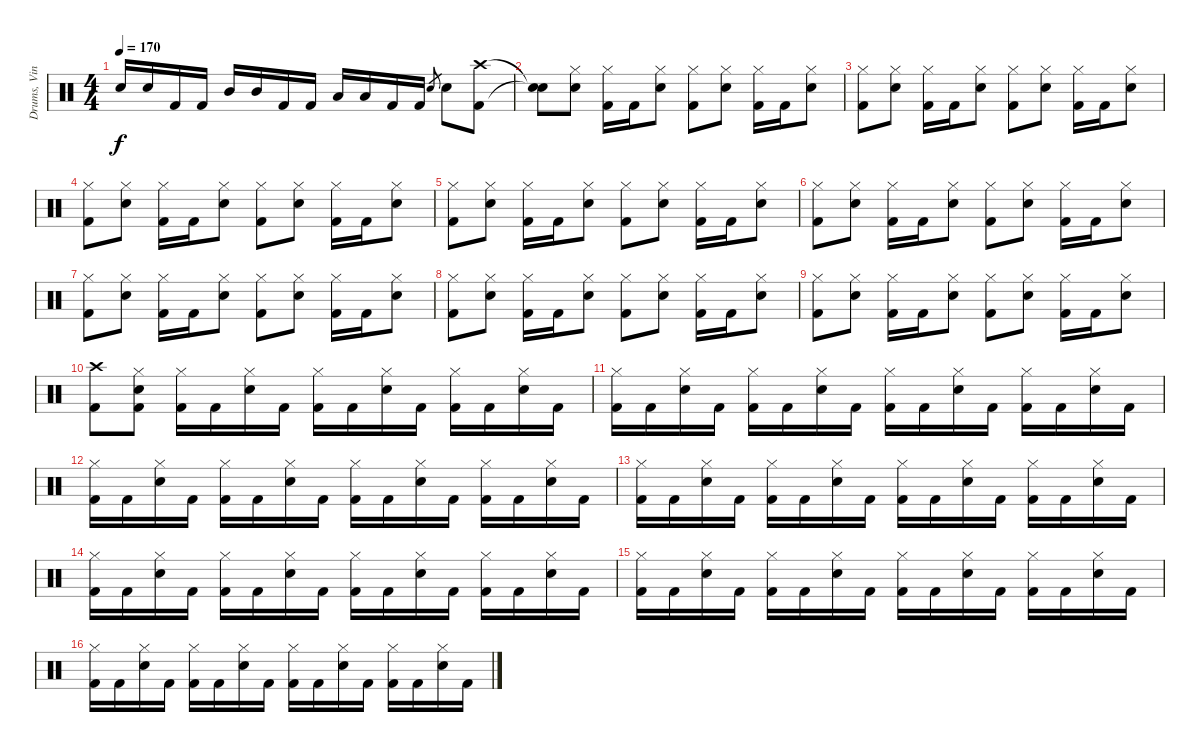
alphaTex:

\track ("Drums, Vinnie" "Drums, Vin") {instrument percussion}
\staff {score}
\articulation defaults
\ts (4 4)
\tempo 170
\clef neutral
\ks c "Electric Snare (hit)".16{dy f} "Electric Snare (hit)".16 "Kick (hit) 2".16 "Kick (hit) 2".16 "Mid Tom (hit)".16 "Mid Tom (hit)".16 "Kick (hit) 2".16 "Kick (hit) 2".16 "Low Tom (hit)".16 "Low Tom (hit)".16 "Kick (hit) 2".16 "Kick (hit) 2".16 "Electric Snare (hit)".8{gr} "Electric Snare (hit)".8
("Crash high (hit)" "Kick (hit) 2").8 |
("Snare (hit)"{t} "Snare (hit)"{t}).8 ("Hi-Hat (closed)" "Electric Snare (hit)").8 ("Hi-Hat (closed)" "Kick (hit) 2").16 "Kick (hit) 2".16 ("Hi-Hat (closed)" "Electric Snare (hit)").8 ("Hi-Hat (closed)" "Kick (hit) 2").8 ("Hi-Hat (closed)" "Electric Snare (hit)").8 ("Hi-Hat (closed)" "Kick (hit) 2").16 "Kick (hit) 2".16 ("Hi-Hat (closed)" "Electric Snare (hit)").8 |
("Hi-Hat (closed)" "Kick (hit) 2").8 ("Hi-Hat (closed)" "Electric Snare (hit)").8 ("Hi-Hat (closed)" "Kick (hit) 2").16 "Kick (hit) 2".16 ("Hi-Hat (closed)" "Electric Snare (hit)").8 ("Hi-Hat (closed)" "Kick (hit) 2").8 ("Hi-Hat (closed)" "Electric Snare (hit)").8 ("Hi-Hat (closed)" "Kick (hit) 2").16 "Kick (hit) 2".16 ("Hi-Hat (closed)" "Electric Snare (hit)").8 |
("Hi-Hat (closed)" "Kick (hit) 2").8 ("Hi-Hat (closed)" "Electric Snare (hit)").8 ("Hi-Hat (closed)" "Kick (hit) 2").16 "Kick (hit) 2".16 ("Hi-Hat (closed)" "Electric Snare (hit)").8 ("Hi-Hat (closed)" "Kick (hit) 2").8 ("Hi-Hat (closed)" "Electric Snare (hit)").8 ("Hi-Hat (closed)" "Kick (hit) 2").16 "Kick (hit) 2".16 ("Hi-Hat (closed)" "Electric Snare (hit)").8 |
("Hi-Hat (closed)" "Kick (hit) 2").8 ("Hi-Hat (closed)" "Electric Snare (hit)").8 ("Hi-Hat (closed)" "Kick (hit) 2").16 "Kick (hit) 2".16 ("Hi-Hat (closed)" "Electric Snare (hit)").8 ("Hi-Hat (closed)" "Kick (hit) 2").8 ("Hi-Hat (closed)" "Electric Snare (hit)").8 ("Hi-Hat (closed)" "Kick (hit) 2").16 "Kick (hit) 2".16 ("Hi-Hat (closed)" "Electric Snare (hit)").8 |
("Hi-Hat (closed)" "Kick (hit) 2").8 ("Hi-Hat (closed)" "Electric Snare (hit)").8 ("Hi-Hat (closed)" "Kick (hit) 2").16 "Kick (hit) 2".16 ("Hi-Hat (closed)" "Electric Snare (hit)").8 ("Hi-Hat (closed)" "Kick (hit) 2").8 ("Hi-Hat (closed)" "Electric Snare (hit)").8 ("Hi-Hat (closed)" "Kick (hit) 2").16 "Kick (hit) 2".16 ("Hi-Hat (closed)" "Electric Snare (hit)").8 |
("Hi-Hat (closed)" "Kick (hit) 2").8 ("Hi-Hat (closed)" "Electric Snare (hit)").8 ("Hi-Hat (closed)" "Kick (hit) 2").16 "Kick (hit) 2".16 ("Hi-Hat (closed)" "Electric Snare (hit)").8 ("Hi-Hat (closed)" "Kick (hit) 2").8 ("Hi-Hat (closed)" "Electric Snare (hit)").8 ("Hi-Hat (closed)" "Kick (hit) 2").16 "Kick (hit) 2".16 ("Hi-Hat (closed)" "Electric Snare (hit)").8 |
("Hi-Hat (closed)" "Kick (hit) 2").8 ("Hi-Hat (closed)" "Electric Snare (hit)").8 ("Hi-Hat (closed)" "Kick (hit) 2").16 "Kick (hit) 2".16 ("Hi-Hat (closed)" "Electric Snare (hit)").8 ("Hi-Hat (closed)" "Kick (hit) 2").8 ("Hi-Hat (closed)" "Electric Snare (hit)").8 ("Hi-Hat (closed)" "Kick (hit) 2").16 "Kick (hit) 2".16 ("Hi-Hat (closed)" "Electric Snare (hit)").8 |
("Hi-Hat (closed)" "Kick (hit) 2").8 ("Hi-Hat (closed)" "Electric Snare (hit)").8 ("Hi-Hat (closed)" "Kick (hit) 2").16 "Kick (hit) 2".16 ("Hi-Hat (closed)" "Electric Snare (hit)").8 ("Hi-Hat (closed)" "Kick (hit) 2").8 ("Hi-Hat (closed)" "Electric Snare (hit)").8 ("Hi-Hat (closed)" "Kick (hit) 2").16 "Kick (hit) 2".16 ("Hi-Hat (closed)" "Electric Snare (hit)").8 |
("Crash high (hit)" "Kick (hit) 2").8 ("Hi-Hat (closed)" "Electric Snare (hit)" "Kick (hit) 2").8 ("Hi-Hat (closed)" "Kick (hit) 2").16 "Kick (hit) 2".16 ("Hi-Hat (closed)" "Electric Snare (hit)").16 "Kick (hit) 2".16 ("Hi-Hat (closed)" "Kick (hit) 2").16 "Kick (hit) 2".16 ("Hi-Hat (closed)" "Electric Snare (hit)").16 "Kick (hit) 2".16 ("Hi-Hat (closed)" "Kick (hit) 2").16 "Kick (hit) 2".16 ("Hi-Hat (closed)" "Electric Snare (hit)").16 "Kick (hit) 2".16 |
("Hi-Hat (closed)" "Kick (hit) 2").16 "Kick (hit) 2".16 ("Hi-Hat (closed)" "Electric Snare (hit)").16 "Kick (hit) 2".16 ("Hi-Hat (closed)" "Kick (hit) 2").16 "Kick (hit) 2".16 ("Hi-Hat (closed)" "Electric Snare (hit)").16 "Kick (hit) 2".16 ("Hi-Hat (closed)" "Kick (hit) 2").16 "Kick (hit) 2".16 ("Hi-Hat (closed)" "Electric Snare (hit)").16 "Kick (hit) 2".16 ("Hi-Hat (closed)" "Kick (hit) 2").16 "Kick (hit) 2".16 ("Hi-Hat (closed)" "Electric Snare (hit)").16 "Kick (hit) 2".16 |
("Hi-Hat (closed)" "Kick (hit) 2").16 "Kick (hit) 2".16 ("Hi-Hat (closed)" "Electric Snare (hit)").16 "Kick (hit) 2".16 ("Hi-Hat (closed)" "Kick (hit) 2").16 "Kick (hit) 2".16 ("Hi-Hat (closed)" "Electric Snare (hit)").16 "Kick (hit) 2".16 ("Hi-Hat (closed)" "Kick (hit) 2").16 "Kick (hit) 2".16 ("Hi-Hat (closed)" "Electric Snare (hit)").16 "Kick (hit) 2".16 ("Hi-Hat (closed)" "Kick (hit) 2").16 "Kick (hit) 2".16 ("Hi-Hat (closed)" "Electric Snare (hit)").16 "Kick (hit) 2".16 |
("Hi-Hat (closed)" "Kick (hit) 2").16 "Kick (hit) 2".16 ("Hi-Hat (closed)" "Electric Snare (hit)").16 "Kick (hit) 2".16 ("Hi-Hat (closed)" "Kick (hit) 2").16 "Kick (hit) 2".16 ("Hi-Hat (closed)" "Electric Snare (hit)").16 "Kick (hit) 2".16 ("Hi-Hat (closed)" "Kick (hit) 2").16 "Kick (hit) 2".16 ("Hi-Hat (closed)" "Electric Snare (hit)").16 "Kick (hit) 2".16 ("Hi-Hat (closed)" "Kick (hit) 2").16 "Kick (hit) 2".16 ("Hi-Hat (closed)" "Electric Snare (hit)").16 "Kick (hit) 2".16 |
("Hi-Hat (closed)" "Kick (hit) 2").16 "Kick (hit) 2".16 ("Hi-Hat (closed)" "Electric Snare (hit)").16 "Kick (hit) 2".16 ("Hi-Hat (closed)" "Kick (hit) 2").16 "Kick (hit) 2".16 ("Hi-Hat (closed)" "Electric Snare (hit)").16 "Kick (hit) 2".16 ("Hi-Hat (closed)" "Kick (hit) 2").16 "Kick (hit) 2".16 ("Hi-Hat (closed)" "Electric Snare (hit)").16 "Kick (hit) 2".16 ("Hi-Hat (closed)" "Kick (hit) 2").16 "Kick (hit) 2".16 ("Hi-Hat (closed)" "Electric Snare (hit)").16 "Kick (hit) 2".16 |
("Hi-Hat (closed)" "Kick (hit) 2").16 "Kick (hit) 2".16 ("Hi-Hat (closed)" "Electric Snare (hit)").16 "Kick (hit) 2".16 ("Hi-Hat (closed)" "Kick (hit) 2").16 "Kick (hit) 2".16 ("Hi-Hat (closed)" "Electric Snare (hit)").16 "Kick (hit) 2".16 ("Hi-Hat (closed)" "Kick (hit) 2").16 "Kick (hit) 2".16 ("Hi-Hat (closed)" "Electric Snare (hit)").16 "Kick (hit) 2".16 ("Hi-Hat (closed)" "Kick (hit) 2").16 "Kick (hit) 2".16 ("Hi-Hat (closed)" "Electric Snare (hit)").16 "Kick (hit) 2".16 |
("Hi-Hat (closed)" "Kick (hit) 2").16 "Kick (hit) 2".16 ("Hi-Hat (closed)" "Electric Snare (hit)").16 "Kick (hit) 2".16 ("Hi-Hat (closed)" "Kick (hit) 2").16 "Kick (hit) 2".16 ("Hi-Hat (closed)" "Electric Snare (hit)").16 "Kick (hit) 2".16 ("Hi-Hat (closed)" "Kick (hit) 2").16 "Kick (hit) 2".16 ("Hi-Hat (closed)" "Electric Snare (hit)").16 "Kick (hit) 2".16 ("Hi-Hat (closed)" "Kick (hit) 2").16 "Kick (hit) 2".16 ("Hi-Hat (closed)" "Electric Snare (hit)").16 "Kick (hit) 2".16
